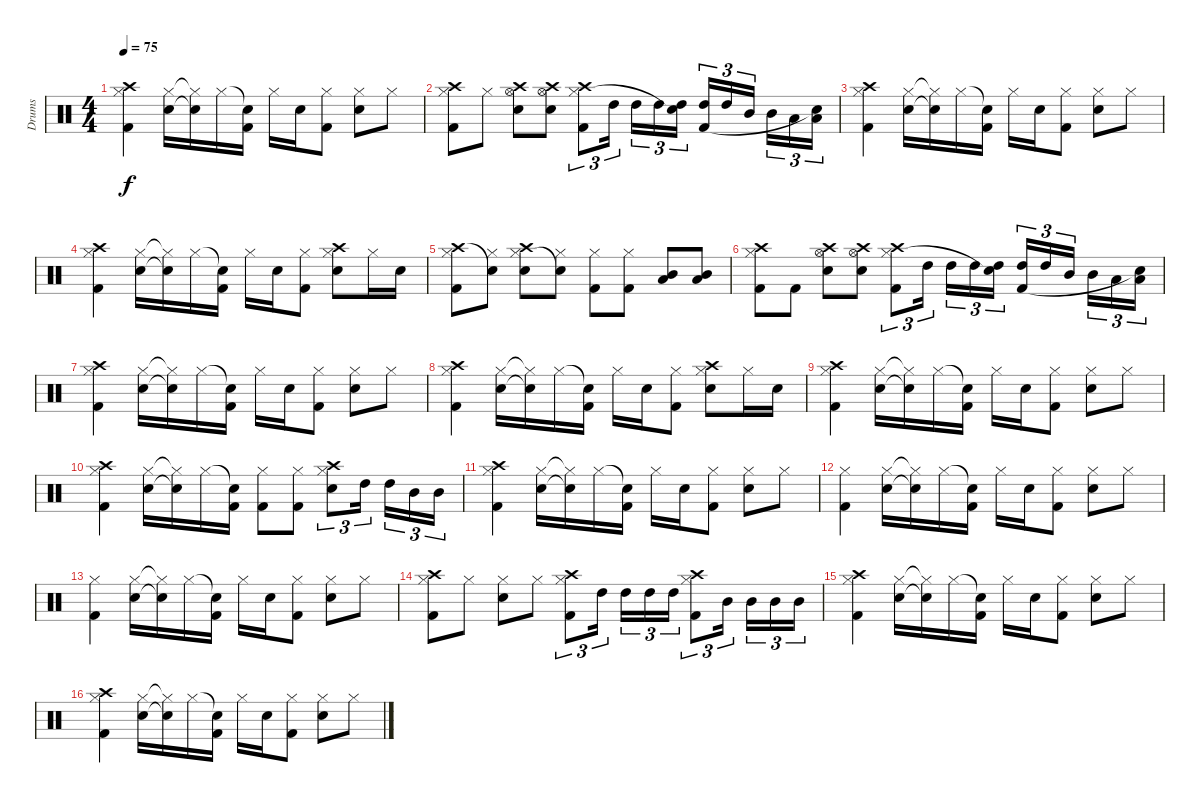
\track ("Drums" "Drums") {instrument percussion}
\staff {score}
\articulation defaults
\ts (4 4)
\tempo 75
\clef neutral
\ks c
("Hi-Hat (closed)" "Kick (hit) 2" "Crash high (hit)").4{dy f} ("Hi-Hat (closed)" "Electric Snare (hit)").16 ("Hi-Hat (closed)"{t} "Electric Snare (hit)"{t}).16 "Hi-Hat (closed)".16 ("Snare (hit)"{t} "Kick (hit) 2").16 "Hi-Hat (closed)".16 "Electric Snare (hit)".16 ("Hi-Hat (closed)" "Kick (hit) 2").8 ("Electric Snare (hit)" "Hi-Hat (closed)").8 "Hi-Hat (closed)".8 |
("Crash high (hit)" "Hi-Hat (closed)" "Kick (hit) 2").8 "Hi-Hat (closed)".8 ("Crash high (hit)" "Hi-Hat (open)" "Electric Snare (hit)").8 ("Crash high (hit)" "Hi-Hat (open)" "Electric Snare (hit)").8 ("Crash high (hit)" "Hi-Hat (closed)" "Kick (hit) 2").8{tu (3 2)} "High Tom (hit)".16{tu (3 2)} "High Tom (hit)".16{tu (3 2)} "High Tom (hit)".16{tu (3 2)} ("High Tom (hit)" "Snare (hit)"{t}).16{tu (3 2)} ("High Tom (hit)" "Kick (hit) 2").16{tu (3 2)} "High Tom (hit)".16{tu (3 2)} "Mid Tom (hit)".16{tu (3 2)} "Mid Tom (hit)".16{tu (3 2)} "Low Tom (hit)".16{tu (3 2)} ("Low Tom (hit)" "Snare (hit)"{t}).16{tu (3 2)} |
("Hi-Hat (closed)" "Kick (hit) 2" "Crash high (hit)").4 ("Hi-Hat (closed)" "Electric Snare (hit)").16 ("Hi-Hat (closed)"{t} "Electric Snare (hit)"{t}).16 "Hi-Hat (closed)".16 ("Snare (hit)"{t} "Kick (hit) 2").16 "Hi-Hat (closed)".16 "Electric Snare (hit)".16 ("Hi-Hat (closed)" "Kick (hit) 2").8 ("Electric Snare (hit)" "Hi-Hat (closed)").8 "Hi-Hat (closed)".8 |
("Hi-Hat (closed)" "Kick (hit) 2" "Crash high (hit)").4 ("Hi-Hat (closed)" "Electric Snare (hit)").16 ("Hi-Hat (closed)"{t} "Electric Snare (hit)"{t}).16 "Hi-Hat (closed)".16 ("Snare (hit)"{t} "Kick (hit) 2").16 "Hi-Hat (closed)".16 "Electric Snare (hit)".16 ("Hi-Hat (closed)" "Kick (hit) 2").8 ("Crash high (hit)" "Electric Snare (hit)" "Hi-Hat (closed)").8 "Hi-Hat (closed)".16 "Electric Snare (hit)".16 |
("Hi-Hat (closed)" "Crash high (hit)" "Kick (hit) 2").8 ("Hi-Hat (closed)" "Snare (hit)"{t}).8 ("Crash high (hit)" "Hi-Hat (closed)" "Electric Snare (hit)").8 ("Hi-Hat (closed)" "Snare (hit)"{t}).8 ("Hi-Hat (closed)" "Kick (hit) 2").8 ("Hi-Hat (closed)" "Kick (hit) 2").8 ("Mid Tom (hit)" "Low Tom (hit)").8 ("Low Tom (hit)" "Mid Tom (hit)").8 |
("Crash high (hit)" "Hi-Hat (closed)" "Kick (hit) 2").8 "Kick (hit) 2".8 ("Crash high (hit)" "Hi-Hat (open)" "Electric Snare (hit)").8 ("Crash high (hit)" "Hi-Hat (open)" "Electric Snare (hit)").8 ("Crash high (hit)" "Hi-Hat (closed)" "Kick (hit) 2").8{tu (3 2)} "High Tom (hit)".16{tu (3 2)} "High Tom (hit)".16{tu (3 2)} "High Tom (hit)".16{tu (3 2)} ("High Tom (hit)" "Snare (hit)"{t}).16{tu (3 2)} ("High Tom (hit)" "Kick (hit) 2").16{tu (3 2)} "High Tom (hit)".16{tu (3 2)} "Mid Tom (hit)".16{tu (3 2)} "Mid Tom (hit)".16{tu (3 2)} "Low Tom (hit)".16{tu (3 2)} ("Low Tom (hit)" "Snare (hit)"{t}).16{tu (3 2)} |
("Hi-Hat (closed)" "Kick (hit) 2" "Crash high (hit)").4 ("Hi-Hat (closed)" "Electric Snare (hit)").16 ("Hi-Hat (closed)"{t} "Electric Snare (hit)"{t}).16 "Hi-Hat (closed)".16 ("Snare (hit)"{t} "Kick (hit) 2").16 "Hi-Hat (closed)".16 "Electric Snare (hit)".16 ("Hi-Hat (closed)" "Kick (hit) 2").8 ("Electric Snare (hit)" "Hi-Hat (closed)").8 "Hi-Hat (closed)".8 |
("Hi-Hat (closed)" "Kick (hit) 2" "Crash high (hit)").4 ("Hi-Hat (closed)" "Electric Snare (hit)").16 ("Hi-Hat (closed)"{t} "Electric Snare (hit)"{t}).16 "Hi-Hat (closed)".16 ("Snare (hit)"{t} "Kick (hit) 2").16 "Hi-Hat (closed)".16 "Electric Snare (hit)".16 ("Hi-Hat (closed)" "Kick (hit) 2").8 ("Crash high (hit)" "Electric Snare (hit)" "Hi-Hat (closed)").8 "Hi-Hat (closed)".16 "Electric Snare (hit)".16 |
("Hi-Hat (closed)" "Kick (hit) 2" "Crash high (hit)").4 ("Hi-Hat (closed)" "Electric Snare (hit)").16 ("Hi-Hat (closed)"{t} "Electric Snare (hit)"{t}).16 "Hi-Hat (closed)".16 ("Snare (hit)"{t} "Kick (hit) 2").16 "Hi-Hat (closed)".16 "Electric Snare (hit)".16 ("Hi-Hat (closed)" "Kick (hit) 2").8 ("Electric Snare (hit)" "Hi-Hat (closed)").8 "Hi-Hat (closed)".8 |
("Hi-Hat (closed)" "Kick (hit) 2" "Crash high (hit)").4 ("Hi-Hat (closed)" "Electric Snare (hit)").16 ("Hi-Hat (closed)"{t} "Electric Snare (hit)"{t}).16 "Hi-Hat (closed)".16 ("Snare (hit)"{t} "Kick (hit) 2").16 ("Hi-Hat (closed)" "Kick (hit) 2").8 ("Hi-Hat (closed)" "Kick (hit) 2").8 ("Crash high (hit)" "Electric Snare (hit)" "Hi-Hat (closed)").8{tu (3 2)} "High Tom (hit)".16{tu (3 2)} "High Tom (hit)".16{tu (3 2)} "Mid Tom (hit)".16{tu (3 2)} "Mid Tom (hit)".16{tu (3 2)} |
("Hi-Hat (closed)" "Kick (hit) 2" "Crash high (hit)").4 ("Hi-Hat (closed)" "Electric Snare (hit)").16 ("Hi-Hat (closed)"{t} "Electric Snare (hit)"{t}).16 "Hi-Hat (closed)".16 ("Snare (hit)"{t} "Kick (hit) 2").16 "Hi-Hat (closed)".16 "Electric Snare (hit)".16 ("Hi-Hat (closed)" "Kick (hit) 2").8 ("Electric Snare (hit)" "Hi-Hat (closed)").8 "Hi-Hat (closed)".8 |
("Hi-Hat (closed)" "Kick (hit) 2").4 ("Hi-Hat (closed)" "Electric Snare (hit)").16 ("Hi-Hat (closed)"{t} "Electric Snare (hit)"{t}).16 "Hi-Hat (closed)".16 ("Snare (hit)"{t} "Kick (hit) 2").16 "Hi-Hat (closed)".16 "Electric Snare (hit)".16 ("Hi-Hat (closed)" "Kick (hit) 2").8 ("Electric Snare (hit)" "Hi-Hat (closed)").8 "Hi-Hat (closed)".8 |
("Hi-Hat (closed)" "Kick (hit) 2").4 ("Hi-Hat (closed)" "Electric Snare (hit)").16 ("Hi-Hat (closed)"{t} "Electric Snare (hit)"{t}).16 "Hi-Hat (closed)".16 ("Snare (hit)"{t} "Kick (hit) 2").16 "Hi-Hat (closed)".16 "Electric Snare (hit)".16 ("Hi-Hat (closed)" "Kick (hit) 2").8 ("Electric Snare (hit)" "Hi-Hat (closed)").8 "Hi-Hat (closed)".8 |
("Crash high (hit)" "Kick (hit) 2" "Hi-Hat (closed)").8 "Hi-Hat (closed)".8 ("Electric Snare (hit)" "Hi-Hat (closed)").8 "Hi-Hat (closed)".8 ("Crash high (hit)" "Kick (hit) 2" "Hi-Hat (closed)").8{tu (3 2)} "High Tom (hit)".16{tu (3 2)} "High Tom (hit)".16{tu (3 2)} "High Tom (hit)".16{tu (3 2)} "High Tom (hit)".16{tu (3 2)} ("Crash high (hit)" "Kick (hit) 2" "Hi-Hat (closed)").8{tu (3 2)} "Mid Tom (hit)".16{tu (3 2)} "Mid Tom (hit)".16{tu (3 2)} "Mid Tom (hit)".16{tu (3 2)} "Mid Tom (hit)".16{tu (3 2)} |
("Hi-Hat (closed)" "Crash high (hit)" "Kick (hit) 2").4 ("Hi-Hat (closed)" "Electric Snare (hit)").16 ("Hi-Hat (closed)"{t} "Electric Snare (hit)"{t}).16 "Hi-Hat (closed)".16 ("Snare (hit)"{t} "Kick (hit) 2").16 "Hi-Hat (closed)".16 "Electric Snare (hit)".16 ("Hi-Hat (closed)" "Kick (hit) 2").8 ("Electric Snare (hit)" "Hi-Hat (closed)").8 "Hi-Hat (closed)".8 |
("Hi-Hat (closed)" "Crash high (hit)" "Kick (hit) 2").4 ("Hi-Hat (closed)" "Electric Snare (hit)").16 ("Hi-Hat (closed)"{t} "Electric Snare (hit)"{t}).16 "Hi-Hat (closed)".16 ("Snare (hit)"{t} "Kick (hit) 2").16 "Hi-Hat (closed)".16 "Electric Snare (hit)".16 ("Hi-Hat (closed)" "Kick (hit) 2").8 ("Electric Snare (hit)" "Hi-Hat (closed)").8 "Hi-Hat (closed)".8
